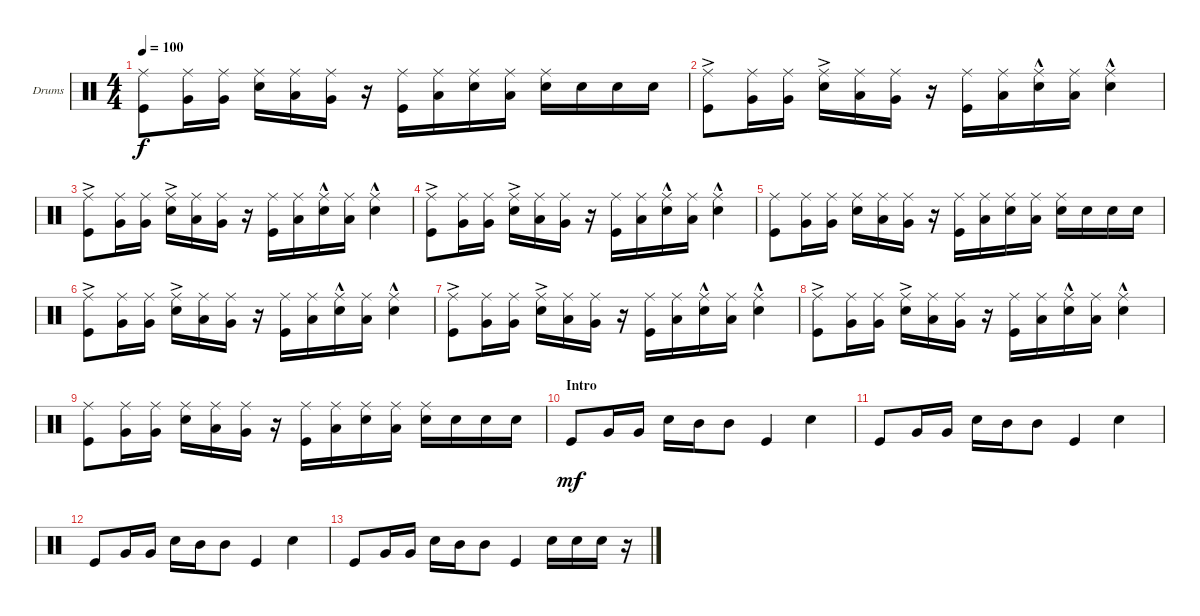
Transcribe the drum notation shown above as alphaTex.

\defaultSystemsLayout 4
\bracketExtendMode groupsimilarinstruments
\firstSystemTrackNameOrientation horizontal
\otherSystemsTrackNameOrientation horizontal
\track ("Dominic Howard" "Drums") {instrument percussion}
\staff {score}
\articulation defaults
\ts (4 4)
\tempo 100
\clef neutral
\ks c
("Kick (hit)" "Ride (middle)").8{dy f} ("Very Low Tom (hit)" "Ride (middle)").16 ("Very Low Tom (hit)" "Ride (middle)").16 ("Snare (hit) 2" "Ride (middle)").16 ("Low Tom (hit)" "Ride (middle)").16 ("Very Low Tom (hit)" "Ride (middle)").16 r.16 ("Kick (hit)" "Ride (middle)").16 ("Low Tom (hit)" "Ride (middle)").16 ("Snare (hit) 2" "Ride (middle)").16 ("Low Tom (hit)" "Ride (middle)").16 ("Snare (hit) 2" "Ride (middle)").16 "Snare (hit) 2".16 "Snare (hit) 2".16 "Snare (hit) 2".16 |
("Kick (hit)"{ac} "Ride (middle)").8 ("Very Low Tom (hit)" "Ride (middle)").16 ("Very Low Tom (hit)" "Ride (middle)").16 ("Snare (hit) 2"{ac} "Ride (middle)").16 ("Low Tom (hit)" "Ride (middle)").16 ("Very Low Tom (hit)" "Ride (middle)").16 r.16 ("Kick (hit)" "Ride (middle)").16 ("Low Tom (hit)" "Ride (middle)").16 ("Snare (hit) 2"{hac} "Ride (middle)").16 ("Low Tom (hit)" "Ride (middle)").16 ("Snare (hit) 2"{hac} "Ride (middle)").4 |
("Kick (hit)"{ac} "Ride (middle)").8 ("Very Low Tom (hit)" "Ride (middle)").16 ("Very Low Tom (hit)" "Ride (middle)").16 ("Snare (hit) 2"{ac} "Ride (middle)").16 ("Low Tom (hit)" "Ride (middle)").16 ("Very Low Tom (hit)" "Ride (middle)").16 r.16 ("Kick (hit)" "Ride (middle)").16 ("Low Tom (hit)" "Ride (middle)").16 ("Snare (hit) 2"{hac} "Ride (middle)").16 ("Low Tom (hit)" "Ride (middle)").16 ("Snare (hit) 2"{hac} "Ride (middle)").4 |
("Kick (hit)"{ac} "Ride (middle)").8 ("Very Low Tom (hit)" "Ride (middle)").16 ("Very Low Tom (hit)" "Ride (middle)").16 ("Snare (hit) 2"{ac} "Ride (middle)").16 ("Low Tom (hit)" "Ride (middle)").16 ("Very Low Tom (hit)" "Ride (middle)").16 r.16 ("Kick (hit)" "Ride (middle)").16 ("Low Tom (hit)" "Ride (middle)").16 ("Snare (hit) 2"{hac} "Ride (middle)").16 ("Low Tom (hit)" "Ride (middle)").16 ("Snare (hit) 2"{hac} "Ride (middle)").4 |
("Kick (hit)" "Ride (middle)").8 ("Very Low Tom (hit)" "Ride (middle)").16 ("Very Low Tom (hit)" "Ride (middle)").16 ("Snare (hit) 2" "Ride (middle)").16 ("Low Tom (hit)" "Ride (middle)").16 ("Very Low Tom (hit)" "Ride (middle)").16 r.16 ("Kick (hit)" "Ride (middle)").16 ("Low Tom (hit)" "Ride (middle)").16 ("Snare (hit) 2" "Ride (middle)").16 ("Low Tom (hit)" "Ride (middle)").16 ("Snare (hit) 2" "Ride (middle)").16 "Snare (hit) 2".16 "Snare (hit) 2".16 "Snare (hit) 2".16 |
("Kick (hit)"{ac} "Ride (middle)").8 ("Very Low Tom (hit)" "Ride (middle)").16 ("Very Low Tom (hit)" "Ride (middle)").16 ("Snare (hit) 2"{ac} "Ride (middle)").16 ("Low Tom (hit)" "Ride (middle)").16 ("Very Low Tom (hit)" "Ride (middle)").16 r.16 ("Kick (hit)" "Ride (middle)").16 ("Low Tom (hit)" "Ride (middle)").16 ("Snare (hit) 2"{hac} "Ride (middle)").16 ("Low Tom (hit)" "Ride (middle)").16 ("Snare (hit) 2"{hac} "Ride (middle)").4 |
("Kick (hit)"{ac} "Ride (middle)").8 ("Very Low Tom (hit)" "Ride (middle)").16 ("Very Low Tom (hit)" "Ride (middle)").16 ("Snare (hit) 2"{ac} "Ride (middle)").16 ("Low Tom (hit)" "Ride (middle)").16 ("Very Low Tom (hit)" "Ride (middle)").16 r.16 ("Kick (hit)" "Ride (middle)").16 ("Low Tom (hit)" "Ride (middle)").16 ("Snare (hit) 2"{hac} "Ride (middle)").16 ("Low Tom (hit)" "Ride (middle)").16 ("Snare (hit) 2"{hac} "Ride (middle)").4 |
("Kick (hit)"{ac} "Ride (middle)").8 ("Very Low Tom (hit)" "Ride (middle)").16 ("Very Low Tom (hit)" "Ride (middle)").16 ("Snare (hit) 2"{ac} "Ride (middle)").16 ("Low Tom (hit)" "Ride (middle)").16 ("Very Low Tom (hit)" "Ride (middle)").16 r.16 ("Kick (hit)" "Ride (middle)").16 ("Low Tom (hit)" "Ride (middle)").16 ("Snare (hit) 2"{hac} "Ride (middle)").16 ("Low Tom (hit)" "Ride (middle)").16 ("Snare (hit) 2"{hac} "Ride (middle)").4 |
("Kick (hit)" "Ride (middle)").8 ("Very Low Tom (hit)" "Ride (middle)").16 ("Very Low Tom (hit)" "Ride (middle)").16 ("Snare (hit) 2" "Ride (middle)").16 ("Low Tom (hit)" "Ride (middle)").16 ("Very Low Tom (hit)" "Ride (middle)").16 r.16 ("Kick (hit)" "Ride (middle)").16 ("Low Tom (hit)" "Ride (middle)").16 ("Snare (hit) 2" "Ride (middle)").16 ("Low Tom (hit)" "Ride (middle)").16 ("Snare (hit) 2" "Ride (middle)").16 "Snare (hit) 2".16 "Snare (hit) 2".16 "Snare (hit) 2".16 |
\section ("" "Intro")
"Kick (hit)".8{dy mf} "Very Low Tom (hit)".16 "Very Low Tom (hit)".16 "Snare (hit) 2".16 "Mid Tom (hit)".16 "Mid Tom (hit)".8 "Kick (hit)".4 "Snare (hit) 2".4 |
"Kick (hit)".8 "Very Low Tom (hit)".16 "Very Low Tom (hit)".16 "Snare (hit) 2".16 "Mid Tom (hit)".16 "Mid Tom (hit)".8 "Kick (hit)".4 "Snare (hit) 2".4 |
"Kick (hit)".8 "Very Low Tom (hit)".16 "Very Low Tom (hit)".16 "Snare (hit) 2".16 "Mid Tom (hit)".16 "Mid Tom (hit)".8 "Kick (hit)".4 "Snare (hit) 2".4 |
"Kick (hit)".8 "Very Low Tom (hit)".16 "Very Low Tom (hit)".16 "Snare (hit) 2".16 "Mid Tom (hit)".16 "Mid Tom (hit)".8 "Kick (hit)".4 "Snare (hit) 2".16 "Snare (hit) 2".16 "Snare (hit) 2".16 r.16
